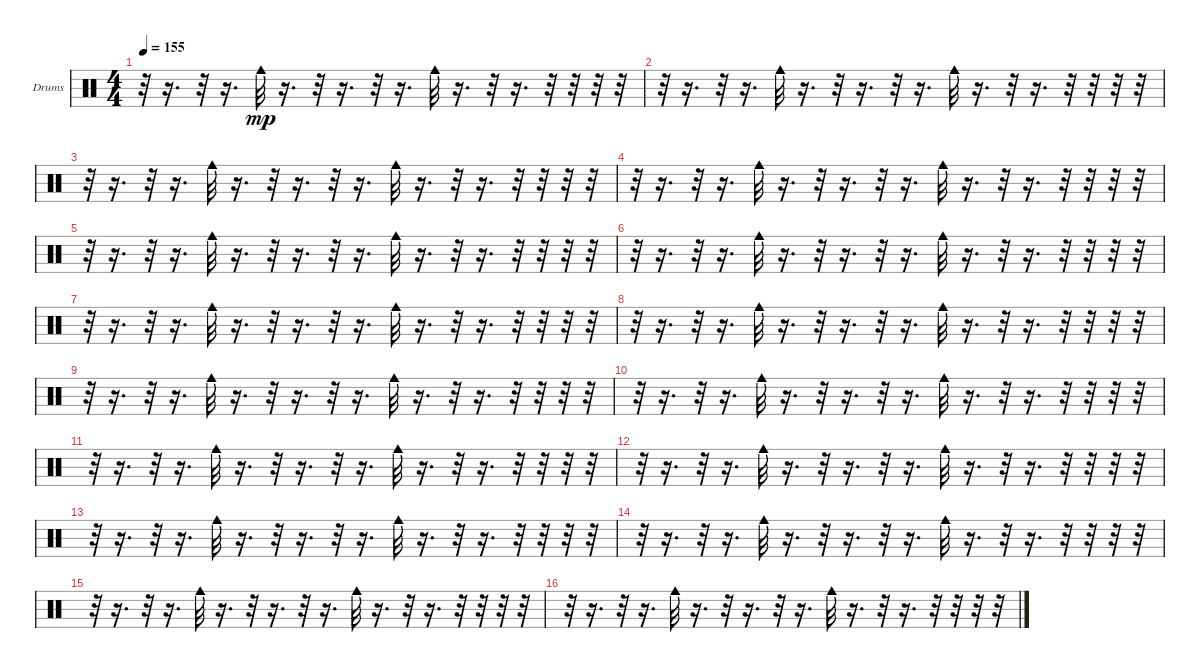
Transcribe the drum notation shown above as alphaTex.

\bracketExtendMode groupsimilarinstruments
\firstSystemTrackNameOrientation horizontal
\otherSystemsTrackNameOrientation horizontal
\track ("Е. Кулаков" "Drums") {instrument percussion}
\staff {score}
\articulation defaults
\ts (4 4)
\tempo 155
\clef neutral
\ks c
r.32{dy mp} r.16{d} r.32 r.16{d} "Cowbell medium (hit)".32 r.16{d} r.32 r.16{d} r.32 r.16{d} "Cowbell medium (hit)".32 r.16{d} r.32 r.16{d} r.32 r.32 r.32 r.32 |
r.32 r.16{d} r.32 r.16{d} "Cowbell medium (hit)".32 r.16{d} r.32 r.16{d} r.32 r.16{d} "Cowbell medium (hit)".32 r.16{d} r.32 r.16{d} r.32 r.32 r.32 r.32 |
r.32 r.16{d} r.32 r.16{d} "Cowbell medium (hit)".32 r.16{d} r.32 r.16{d} r.32 r.16{d} "Cowbell medium (hit)".32 r.16{d} r.32 r.16{d} r.32 r.32 r.32 r.32 |
r.32 r.16{d} r.32 r.16{d} "Cowbell medium (hit)".32 r.16{d} r.32 r.16{d} r.32 r.16{d} "Cowbell medium (hit)".32 r.16{d} r.32 r.16{d} r.32 r.32 r.32 r.32 |
r.32 r.16{d} r.32 r.16{d} "Cowbell medium (hit)".32 r.16{d} r.32 r.16{d} r.32 r.16{d} "Cowbell medium (hit)".32 r.16{d} r.32 r.16{d} r.32 r.32 r.32 r.32 |
r.32 r.16{d} r.32 r.16{d} "Cowbell medium (hit)".32 r.16{d} r.32 r.16{d} r.32 r.16{d} "Cowbell medium (hit)".32 r.16{d} r.32 r.16{d} r.32 r.32 r.32 r.32 |
r.32 r.16{d} r.32 r.16{d} "Cowbell medium (hit)".32 r.16{d} r.32 r.16{d} r.32 r.16{d} "Cowbell medium (hit)".32 r.16{d} r.32 r.16{d} r.32 r.32 r.32 r.32 |
r.32 r.16{d} r.32 r.16{d} "Cowbell medium (hit)".32 r.16{d} r.32 r.16{d} r.32 r.16{d} "Cowbell medium (hit)".32 r.16{d} r.32 r.16{d} r.32 r.32 r.32 r.32 |
r.32 r.16{d} r.32 r.16{d} "Cowbell medium (hit)".32 r.16{d} r.32 r.16{d} r.32 r.16{d} "Cowbell medium (hit)".32 r.16{d} r.32 r.16{d} r.32 r.32 r.32 r.32 |
r.32 r.16{d} r.32 r.16{d} "Cowbell medium (hit)".32 r.16{d} r.32 r.16{d} r.32 r.16{d} "Cowbell medium (hit)".32 r.16{d} r.32 r.16{d} r.32 r.32 r.32 r.32 |
r.32 r.16{d} r.32 r.16{d} "Cowbell medium (hit)".32 r.16{d} r.32 r.16{d} r.32 r.16{d} "Cowbell medium (hit)".32 r.16{d} r.32 r.16{d} r.32 r.32 r.32 r.32 |
r.32 r.16{d} r.32 r.16{d} "Cowbell medium (hit)".32 r.16{d} r.32 r.16{d} r.32 r.16{d} "Cowbell medium (hit)".32 r.16{d} r.32 r.16{d} r.32 r.32 r.32 r.32 |
r.32 r.16{d} r.32 r.16{d} "Cowbell medium (hit)".32 r.16{d} r.32 r.16{d} r.32 r.16{d} "Cowbell medium (hit)".32 r.16{d} r.32 r.16{d} r.32 r.32 r.32 r.32 |
r.32 r.16{d} r.32 r.16{d} "Cowbell medium (hit)".32 r.16{d} r.32 r.16{d} r.32 r.16{d} "Cowbell medium (hit)".32 r.16{d} r.32 r.16{d} r.32 r.32 r.32 r.32 |
r.32 r.16{d} r.32 r.16{d} "Cowbell medium (hit)".32 r.16{d} r.32 r.16{d} r.32 r.16{d} "Cowbell medium (hit)".32 r.16{d} r.32 r.16{d} r.32 r.32 r.32 r.32 |
r.32 r.16{d} r.32 r.16{d} "Cowbell medium (hit)".32 r.16{d} r.32 r.16{d} r.32 r.16{d} "Cowbell medium (hit)".32 r.16{d} r.32 r.16{d} r.32 r.32 r.32 r.32
